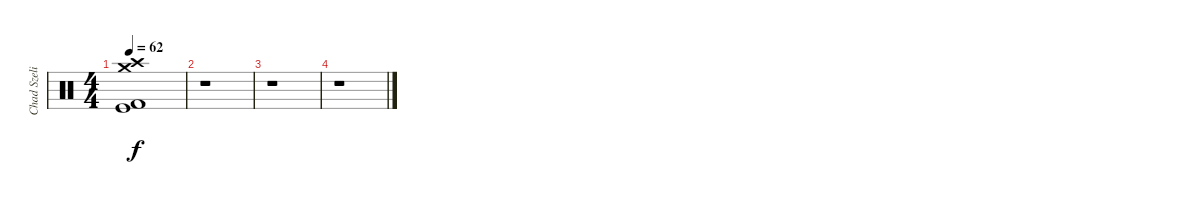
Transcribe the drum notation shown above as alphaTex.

\track ("Chad Szeliga" "Chad Szeli") {instrument percussion}
\staff {score}
\articulation defaults
\ts (4 4)
\tempo 62
\clef neutral
\ks c
("Crash high (hit)" "Kick (hit) 2" "Kick (hit)" "Crash medium (hit)").1{dy f} |
r.1 |
r.1 |
r.1
